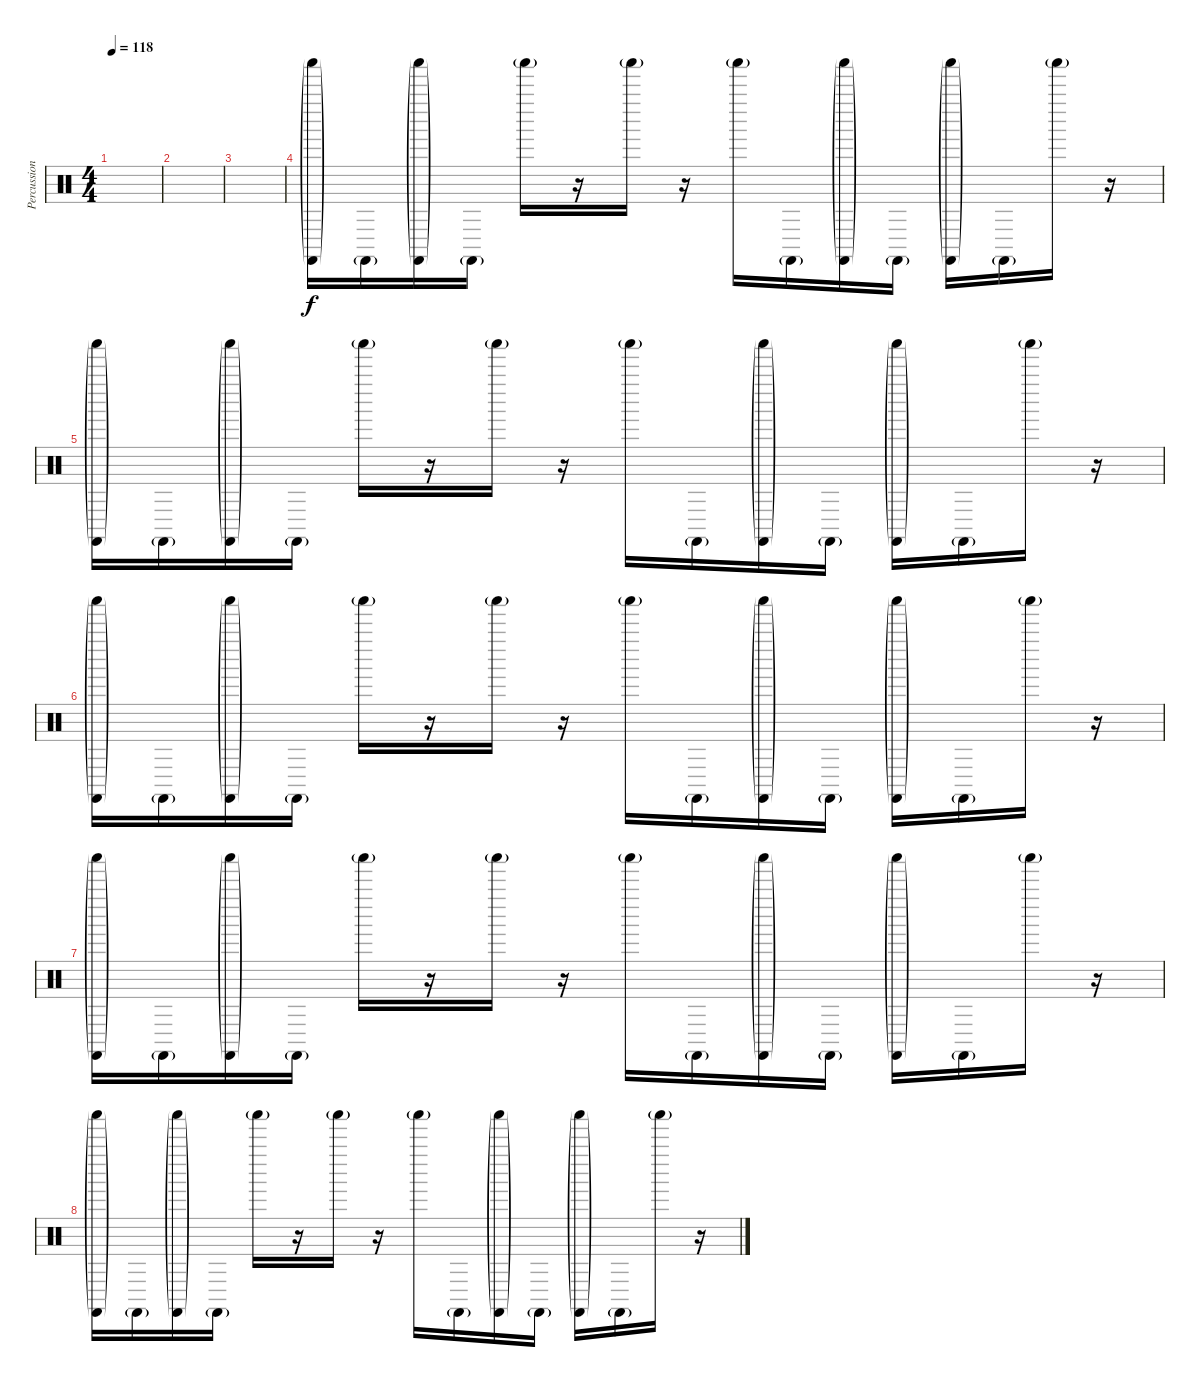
\track ("Percussion" "Percussion") {instrument percussion}
\staff {score}
\articulation defaults
\ts (4 4)
\tempo 118
\clef neutral
\ks c
|
|
|
("Castanets (hit)"{g} "Shaker (hit)"{g}).16 "Castanets (hit)"{g}.16 ("Castanets (hit)"{g} "Shaker (hit)"{g}).16 "Castanets (hit)"{g}.16 "Shaker (hit)"{g}.16 r.16 "Shaker (hit)"{g}.16 r.16 "Shaker (hit)"{g}.16 "Castanets (hit)"{g}.16 ("Castanets (hit)"{g} "Shaker (hit)"{g}).16 "Castanets (hit)"{g}.16 ("Castanets (hit)"{g} "Shaker (hit)"{g}).16 "Castanets (hit)"{g}.16 "Shaker (hit)"{g}.16 r.16 |
("Castanets (hit)"{g} "Shaker (hit)"{g}).16 "Castanets (hit)"{g}.16 ("Castanets (hit)"{g} "Shaker (hit)"{g}).16 "Castanets (hit)"{g}.16 "Shaker (hit)"{g}.16 r.16 "Shaker (hit)"{g}.16 r.16 "Shaker (hit)"{g}.16 "Castanets (hit)"{g}.16 ("Castanets (hit)"{g} "Shaker (hit)"{g}).16 "Castanets (hit)"{g}.16 ("Castanets (hit)"{g} "Shaker (hit)"{g}).16 "Castanets (hit)"{g}.16 "Shaker (hit)"{g}.16 r.16 |
("Castanets (hit)"{g} "Shaker (hit)"{g}).16 "Castanets (hit)"{g}.16 ("Castanets (hit)"{g} "Shaker (hit)"{g}).16 "Castanets (hit)"{g}.16 "Shaker (hit)"{g}.16 r.16 "Shaker (hit)"{g}.16 r.16 "Shaker (hit)"{g}.16 "Castanets (hit)"{g}.16 ("Castanets (hit)"{g} "Shaker (hit)"{g}).16 "Castanets (hit)"{g}.16 ("Castanets (hit)"{g} "Shaker (hit)"{g}).16 "Castanets (hit)"{g}.16 "Shaker (hit)"{g}.16 r.16 |
("Castanets (hit)"{g} "Shaker (hit)"{g}).16 "Castanets (hit)"{g}.16 ("Castanets (hit)"{g} "Shaker (hit)"{g}).16 "Castanets (hit)"{g}.16 "Shaker (hit)"{g}.16 r.16 "Shaker (hit)"{g}.16 r.16 "Shaker (hit)"{g}.16 "Castanets (hit)"{g}.16 ("Castanets (hit)"{g} "Shaker (hit)"{g}).16 "Castanets (hit)"{g}.16 ("Castanets (hit)"{g} "Shaker (hit)"{g}).16 "Castanets (hit)"{g}.16 "Shaker (hit)"{g}.16 r.16 |
("Castanets (hit)"{g} "Shaker (hit)"{g}).16 "Castanets (hit)"{g}.16 ("Castanets (hit)"{g} "Shaker (hit)"{g}).16 "Castanets (hit)"{g}.16 "Shaker (hit)"{g}.16 r.16 "Shaker (hit)"{g}.16 r.16 "Shaker (hit)"{g}.16 "Castanets (hit)"{g}.16 ("Castanets (hit)"{g} "Shaker (hit)"{g}).16 "Castanets (hit)"{g}.16 ("Castanets (hit)"{g} "Shaker (hit)"{g}).16 "Castanets (hit)"{g}.16 "Shaker (hit)"{g}.16 r.16
